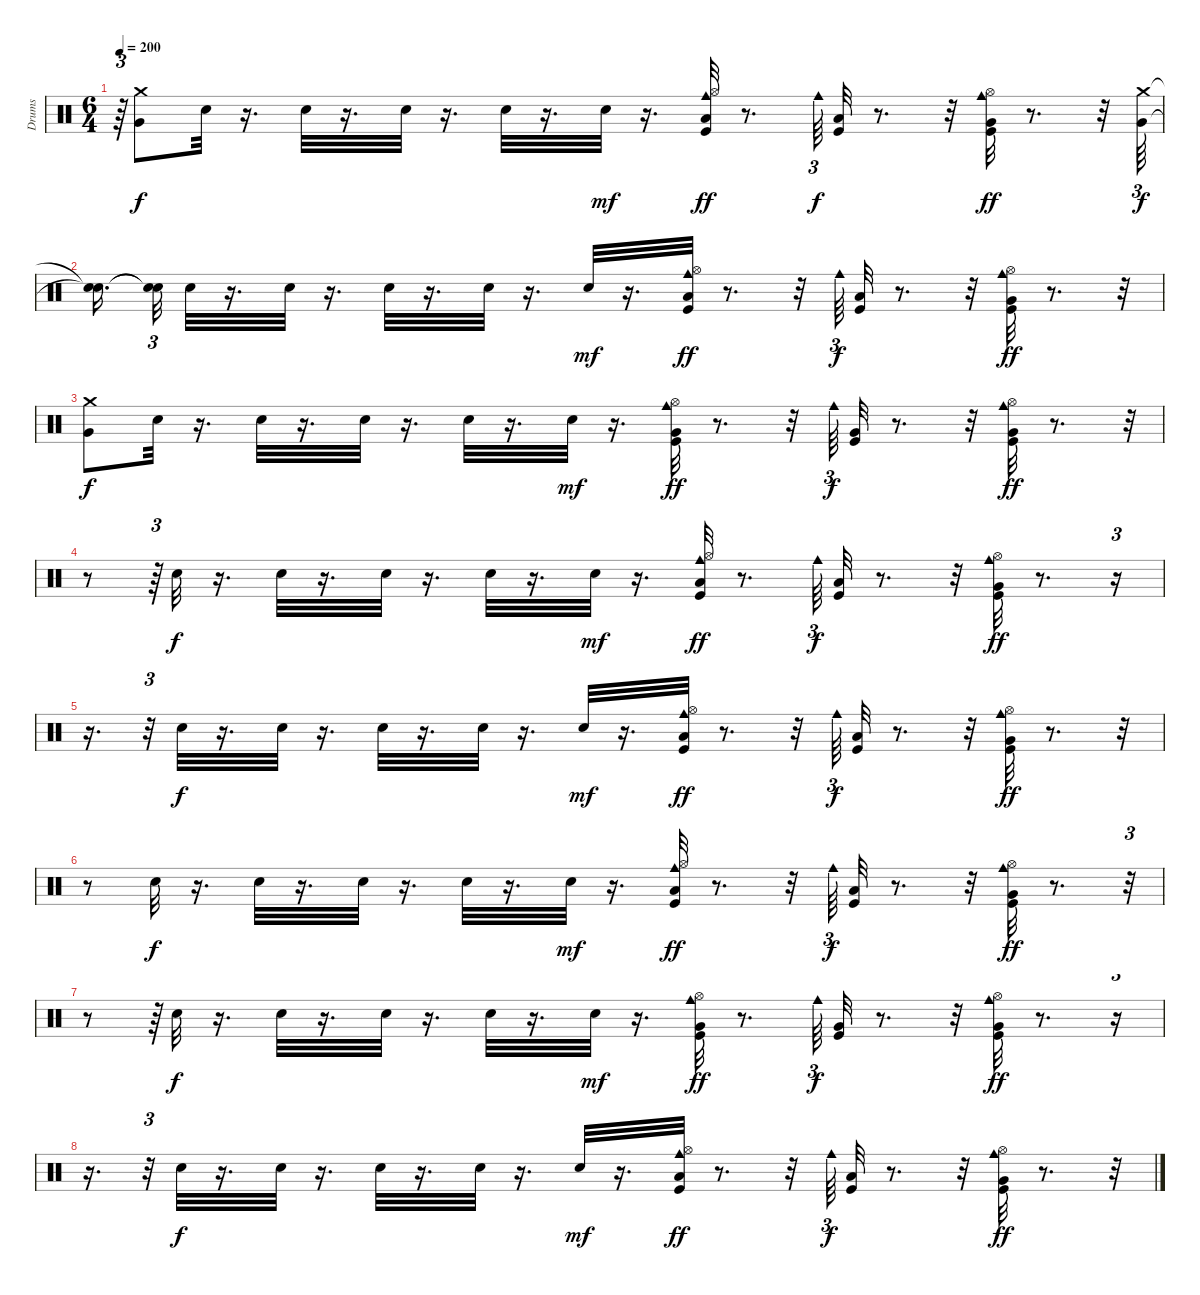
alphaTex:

\track ("Drums" "Drums") {instrument percussion}
\staff {score}
\articulation defaults
\ts (6 4)
\tempo 200
\clef neutral
\ks c
r.64{tu (3 2) dy ff} ("Very Low Tom (hit)" "Crash medium (hit)").8{dy f} "Snare (hit) 2".32 r.16{d} "Snare (hit) 2".32 r.16{d} "Snare (hit) 2".32 r.16{d} "Snare (hit) 2".32 r.16{d} "Snare (hit) 2".32{dy mf} r.16{d} ("Kick (hit)" "Hi-Hat (open)" "Cowbell medium (hit)" "Low Floor Tom (hit)").32{dy ff} r.8{d} "Cowbell medium (hit)".64{tu (3 2) dy f} ("Kick (hit)" "Low Floor Tom (hit)").32 r.8{d} r.32 ("Hi-Hat (open)" "Kick (hit)" "Cowbell medium (hit)" "Very Low Tom (hit)").32{dy ff} r.8{d} r.32 ("Very Low Tom (hit)" "Crash medium (hit)").64{tu (3 2) dy f} |
("Snare (hit)"{t} "Snare (hit)"{t}).16{d} ("Snare (hit)"{t} "Snare (hit)"{t}).32{tu (3 2)} "Snare (hit) 2".32 r.16{d} "Snare (hit) 2".32 r.16{d} "Snare (hit) 2".32 r.16{d} "Snare (hit) 2".32 r.16{d} "Snare (hit) 2".32{dy mf} r.16{d} ("Kick (hit)" "Hi-Hat (open)" "Cowbell medium (hit)" "Low Floor Tom (hit)").32{dy ff} r.8{d} r.32 "Cowbell medium (hit)".64{tu (3 2) dy f} ("Kick (hit)" "Low Floor Tom (hit)").32 r.8{d} r.32 ("Hi-Hat (open)" "Kick (hit)" "Cowbell medium (hit)" "Very Low Tom (hit)").32{dy ff} r.8{d} r.32 |
("Very Low Tom (hit)" "Crash medium (hit)").8{dy f} "Snare (hit) 2".32 r.16{d} "Snare (hit) 2".32 r.16{d} "Snare (hit) 2".32 r.16{d} "Snare (hit) 2".32 r.16{d} "Electric Snare (hit)".32{dy mf} r.16{d} ("Very Low Tom (hit)" "Kick (hit)" "Hi-Hat (open)" "Cowbell medium (hit)").32{dy ff} r.8{d} r.32 "Cowbell medium (hit)".64{tu (3 2) dy f} ("Very Low Tom (hit)" "Kick (hit)").32 r.8{d} r.32 ("Very Low Tom (hit)" "Hi-Hat (open)" "Kick (hit)" "Cowbell medium (hit)").32{dy ff} r.8{d} r.32{tu (3 2)} |
r.8 r.64{tu (3 2)} "Snare (hit) 2".32{dy f} r.16{d} "Snare (hit) 2".32 r.16{d} "Snare (hit) 2".32 r.16{d} "Snare (hit) 2".32 r.16{d} "Snare (hit) 2".32{dy mf} r.16{d} ("Kick (hit)" "Hi-Hat (open)" "Cowbell medium (hit)" "Low Floor Tom (hit)").32{dy ff} r.8{d} "Cowbell medium (hit)".64{tu (3 2) dy f} ("Kick (hit)" "Low Floor Tom (hit)").32 r.8{d} r.32 ("Hi-Hat (open)" "Kick (hit)" "Cowbell medium (hit)" "Very Low Tom (hit)").32{dy ff} r.8{d} r.16{tu (3 2)} |
r.16{d} r.32{tu (3 2)} "Snare (hit) 2".32{dy f} r.16{d} "Snare (hit) 2".32 r.16{d} "Snare (hit) 2".32 r.16{d} "Snare (hit) 2".32 r.16{d} "Snare (hit) 2".32{dy mf} r.16{d} ("Kick (hit)" "Hi-Hat (open)" "Cowbell medium (hit)" "Low Floor Tom (hit)").32{dy ff} r.8{d} r.32 "Cowbell medium (hit)".64{tu (3 2) dy f} ("Kick (hit)" "Low Floor Tom (hit)").32 r.8{d} r.32 ("Hi-Hat (open)" "Kick (hit)" "Cowbell medium (hit)" "Very Low Tom (hit)").32{dy ff} r.8{d} r.32 |
r.8 "Snare (hit) 2".32{dy f} r.16{d} "Snare (hit) 2".32 r.16{d} "Snare (hit) 2".32 r.16{d} "Snare (hit) 2".32 r.16{d} "Snare (hit) 2".32{dy mf} r.16{d} ("Kick (hit)" "Hi-Hat (open)" "Cowbell medium (hit)" "Low Floor Tom (hit)").32{dy ff} r.8{d} r.32 "Cowbell medium (hit)".64{tu (3 2) dy f} ("Kick (hit)" "Low Floor Tom (hit)").32 r.8{d} r.32 ("Hi-Hat (open)" "Kick (hit)" "Cowbell medium (hit)" "Very Low Tom (hit)").32{dy ff} r.8{d} r.32{tu (3 2)} |
r.8 r.64{tu (3 2)} "Snare (hit) 2".32{dy f} r.16{d} "Snare (hit) 2".32 r.16{d} "Snare (hit) 2".32 r.16{d} "Snare (hit) 2".32 r.16{d} "Electric Snare (hit)".32{dy mf} r.16{d} ("Very Low Tom (hit)" "Kick (hit)" "Hi-Hat (open)" "Cowbell medium (hit)").32{dy ff} r.8{d} "Cowbell medium (hit)".64{tu (3 2) dy f} ("Very Low Tom (hit)" "Kick (hit)").32 r.8{d} r.32 ("Very Low Tom (hit)" "Hi-Hat (open)" "Kick (hit)" "Cowbell medium (hit)").32{dy ff} r.8{d} r.16{tu (3 2)} |
r.16{d} r.32{tu (3 2)} "Snare (hit) 2".32{dy f} r.16{d} "Snare (hit) 2".32 r.16{d} "Snare (hit) 2".32 r.16{d} "Snare (hit) 2".32 r.16{d} "Snare (hit) 2".32{dy mf} r.16{d} ("Kick (hit)" "Hi-Hat (open)" "Cowbell medium (hit)" "Low Floor Tom (hit)").32{dy ff} r.8{d} r.32 "Cowbell medium (hit)".64{tu (3 2) dy f} ("Kick (hit)" "Low Floor Tom (hit)").32 r.8{d} r.32 ("Hi-Hat (open)" "Kick (hit)" "Cowbell medium (hit)" "Very Low Tom (hit)").32{dy ff} r.8{d} r.32
